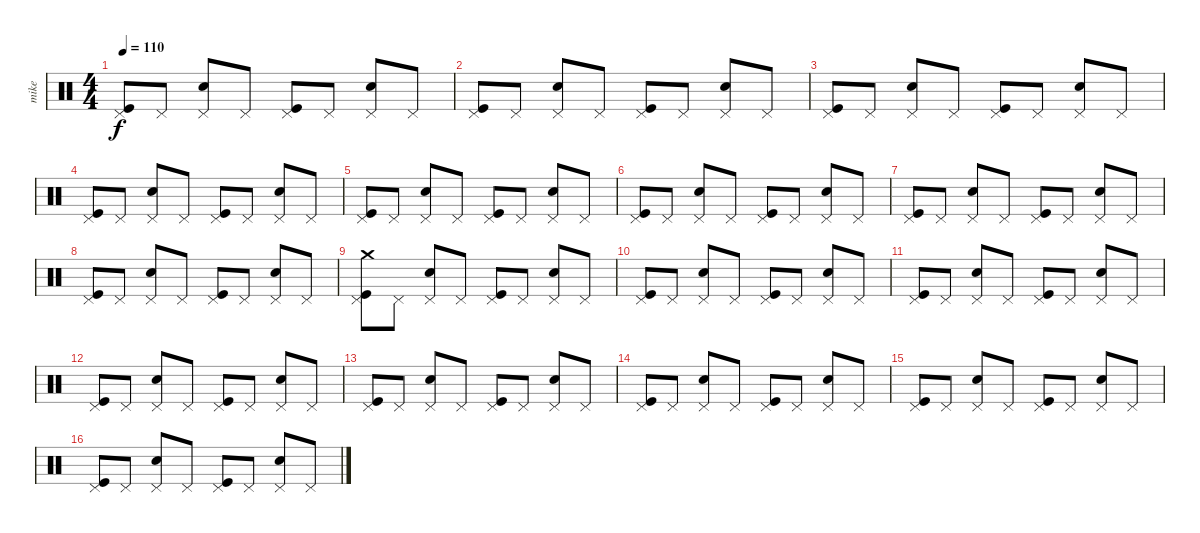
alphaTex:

\track ("mike" "mike") {instrument percussion}
\staff {score}
\articulation defaults
\ts (4 4)
\tempo 110
\clef neutral
\ks c
("Pedal Hi-Hat (hit)" "Kick (hit)").8{dy f} "Pedal Hi-Hat (hit)".8 ("Pedal Hi-Hat (hit)" "Electric Snare (hit)").8 "Pedal Hi-Hat (hit)".8 ("Pedal Hi-Hat (hit)" "Kick (hit)").8 "Pedal Hi-Hat (hit)".8 ("Pedal Hi-Hat (hit)" "Electric Snare (hit)").8 "Pedal Hi-Hat (hit)".8 |
("Pedal Hi-Hat (hit)" "Kick (hit)").8 "Pedal Hi-Hat (hit)".8 ("Pedal Hi-Hat (hit)" "Electric Snare (hit)").8 "Pedal Hi-Hat (hit)".8 ("Pedal Hi-Hat (hit)" "Kick (hit)").8 "Pedal Hi-Hat (hit)".8 ("Pedal Hi-Hat (hit)" "Electric Snare (hit)").8 "Pedal Hi-Hat (hit)".8 |
("Pedal Hi-Hat (hit)" "Kick (hit)").8 "Pedal Hi-Hat (hit)".8 ("Pedal Hi-Hat (hit)" "Electric Snare (hit)").8 "Pedal Hi-Hat (hit)".8 ("Pedal Hi-Hat (hit)" "Kick (hit)").8 "Pedal Hi-Hat (hit)".8 ("Pedal Hi-Hat (hit)" "Electric Snare (hit)").8 "Pedal Hi-Hat (hit)".8 |
("Pedal Hi-Hat (hit)" "Kick (hit)").8 "Pedal Hi-Hat (hit)".8 ("Pedal Hi-Hat (hit)" "Electric Snare (hit)").8 "Pedal Hi-Hat (hit)".8 ("Pedal Hi-Hat (hit)" "Kick (hit)").8 "Pedal Hi-Hat (hit)".8 ("Pedal Hi-Hat (hit)" "Electric Snare (hit)").8 "Pedal Hi-Hat (hit)".8 |
("Pedal Hi-Hat (hit)" "Kick (hit)").8 "Pedal Hi-Hat (hit)".8 ("Pedal Hi-Hat (hit)" "Electric Snare (hit)").8 "Pedal Hi-Hat (hit)".8 ("Pedal Hi-Hat (hit)" "Kick (hit)").8 "Pedal Hi-Hat (hit)".8 ("Pedal Hi-Hat (hit)" "Electric Snare (hit)").8 "Pedal Hi-Hat (hit)".8 |
("Pedal Hi-Hat (hit)" "Kick (hit)").8 "Pedal Hi-Hat (hit)".8 ("Pedal Hi-Hat (hit)" "Electric Snare (hit)").8 "Pedal Hi-Hat (hit)".8 ("Pedal Hi-Hat (hit)" "Kick (hit)").8 "Pedal Hi-Hat (hit)".8 ("Pedal Hi-Hat (hit)" "Electric Snare (hit)").8 "Pedal Hi-Hat (hit)".8 |
("Pedal Hi-Hat (hit)" "Kick (hit)").8 "Pedal Hi-Hat (hit)".8 ("Pedal Hi-Hat (hit)" "Electric Snare (hit)").8 "Pedal Hi-Hat (hit)".8 ("Pedal Hi-Hat (hit)" "Kick (hit)").8 "Pedal Hi-Hat (hit)".8 ("Pedal Hi-Hat (hit)" "Electric Snare (hit)").8 "Pedal Hi-Hat (hit)".8 |
("Pedal Hi-Hat (hit)" "Kick (hit)").8 "Pedal Hi-Hat (hit)".8 ("Pedal Hi-Hat (hit)" "Electric Snare (hit)").8 "Pedal Hi-Hat (hit)".8 ("Pedal Hi-Hat (hit)" "Kick (hit)").8 "Pedal Hi-Hat (hit)".8 ("Pedal Hi-Hat (hit)" "Electric Snare (hit)").8 "Pedal Hi-Hat (hit)".8 |
("Pedal Hi-Hat (hit)" "Kick (hit)" "Crash medium (hit)").8 "Pedal Hi-Hat (hit)".8 ("Pedal Hi-Hat (hit)" "Electric Snare (hit)").8 "Pedal Hi-Hat (hit)".8 ("Pedal Hi-Hat (hit)" "Kick (hit)").8 "Pedal Hi-Hat (hit)".8 ("Pedal Hi-Hat (hit)" "Electric Snare (hit)").8 "Pedal Hi-Hat (hit)".8 |
("Pedal Hi-Hat (hit)" "Kick (hit)").8 "Pedal Hi-Hat (hit)".8 ("Pedal Hi-Hat (hit)" "Electric Snare (hit)").8 "Pedal Hi-Hat (hit)".8 ("Pedal Hi-Hat (hit)" "Kick (hit)").8 "Pedal Hi-Hat (hit)".8 ("Pedal Hi-Hat (hit)" "Electric Snare (hit)").8 "Pedal Hi-Hat (hit)".8 |
("Pedal Hi-Hat (hit)" "Kick (hit)").8 "Pedal Hi-Hat (hit)".8 ("Pedal Hi-Hat (hit)" "Electric Snare (hit)").8 "Pedal Hi-Hat (hit)".8 ("Pedal Hi-Hat (hit)" "Kick (hit)").8 "Pedal Hi-Hat (hit)".8 ("Pedal Hi-Hat (hit)" "Electric Snare (hit)").8 "Pedal Hi-Hat (hit)".8 |
("Pedal Hi-Hat (hit)" "Kick (hit)").8 "Pedal Hi-Hat (hit)".8 ("Pedal Hi-Hat (hit)" "Electric Snare (hit)").8 "Pedal Hi-Hat (hit)".8 ("Pedal Hi-Hat (hit)" "Kick (hit)").8 "Pedal Hi-Hat (hit)".8 ("Pedal Hi-Hat (hit)" "Electric Snare (hit)").8 "Pedal Hi-Hat (hit)".8 |
("Pedal Hi-Hat (hit)" "Kick (hit)").8 "Pedal Hi-Hat (hit)".8 ("Pedal Hi-Hat (hit)" "Electric Snare (hit)").8 "Pedal Hi-Hat (hit)".8 ("Pedal Hi-Hat (hit)" "Kick (hit)").8 "Pedal Hi-Hat (hit)".8 ("Pedal Hi-Hat (hit)" "Electric Snare (hit)").8 "Pedal Hi-Hat (hit)".8 |
("Pedal Hi-Hat (hit)" "Kick (hit)").8 "Pedal Hi-Hat (hit)".8 ("Pedal Hi-Hat (hit)" "Electric Snare (hit)").8 "Pedal Hi-Hat (hit)".8 ("Pedal Hi-Hat (hit)" "Kick (hit)").8 "Pedal Hi-Hat (hit)".8 ("Pedal Hi-Hat (hit)" "Electric Snare (hit)").8 "Pedal Hi-Hat (hit)".8 |
("Pedal Hi-Hat (hit)" "Kick (hit)").8 "Pedal Hi-Hat (hit)".8 ("Pedal Hi-Hat (hit)" "Electric Snare (hit)").8 "Pedal Hi-Hat (hit)".8 ("Pedal Hi-Hat (hit)" "Kick (hit)").8 "Pedal Hi-Hat (hit)".8 ("Pedal Hi-Hat (hit)" "Electric Snare (hit)").8 "Pedal Hi-Hat (hit)".8 |
("Pedal Hi-Hat (hit)" "Kick (hit)").8 "Pedal Hi-Hat (hit)".8 ("Pedal Hi-Hat (hit)" "Electric Snare (hit)").8 "Pedal Hi-Hat (hit)".8 ("Pedal Hi-Hat (hit)" "Kick (hit)").8 "Pedal Hi-Hat (hit)".8 ("Pedal Hi-Hat (hit)" "Electric Snare (hit)").8 "Pedal Hi-Hat (hit)".8
